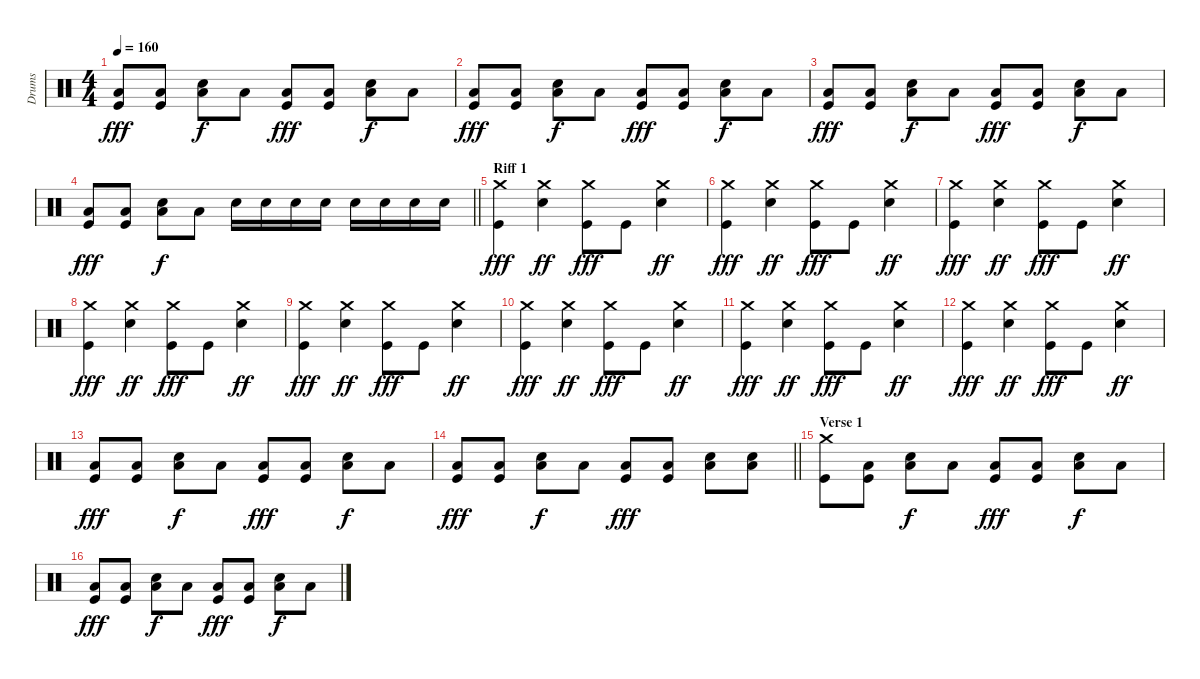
\track ("Drums" "Drums") {instrument percussion}
\staff {score}
\articulation defaults
\ts (4 4)
\tempo 160
\clef neutral
\ks c
("Low Floor Tom (hit)" "Kick (hit)").8{dy fff} ("Low Floor Tom (hit)" "Kick (hit)").8 ("Low Floor Tom (hit)" "Electric Snare (hit)").8{dy f} "Low Floor Tom (hit)".8 ("Low Floor Tom (hit)" "Kick (hit)").8{dy fff} ("Low Floor Tom (hit)" "Kick (hit)").8 ("Low Floor Tom (hit)" "Electric Snare (hit)").8{dy f} "Low Floor Tom (hit)".8 |
("Low Floor Tom (hit)" "Kick (hit)").8{dy fff} ("Low Floor Tom (hit)" "Kick (hit)").8 ("Low Floor Tom (hit)" "Electric Snare (hit)").8{dy f} "Low Floor Tom (hit)".8 ("Low Floor Tom (hit)" "Kick (hit)").8{dy fff} ("Low Floor Tom (hit)" "Kick (hit)").8 ("Low Floor Tom (hit)" "Electric Snare (hit)").8{dy f} "Low Floor Tom (hit)".8 |
("Low Floor Tom (hit)" "Kick (hit)").8{dy fff} ("Low Floor Tom (hit)" "Kick (hit)").8 ("Low Floor Tom (hit)" "Electric Snare (hit)").8{dy f} "Low Floor Tom (hit)".8 ("Low Floor Tom (hit)" "Kick (hit)").8{dy fff} ("Low Floor Tom (hit)" "Kick (hit)").8 ("Low Floor Tom (hit)" "Electric Snare (hit)").8{dy f} "Low Floor Tom (hit)".8 |
\barLineRight lightlight
("Low Floor Tom (hit)" "Kick (hit)").8{dy fff} ("Low Floor Tom (hit)" "Kick (hit)").8 ("Low Floor Tom (hit)" "Electric Snare (hit)").8{dy f} "Low Floor Tom (hit)".8 "Electric Snare (hit)".16 "Electric Snare (hit)".16 "Electric Snare (hit)".16 "Electric Snare (hit)".16 "Electric Snare (hit)".16 "Electric Snare (hit)".16 "Electric Snare (hit)".16 "Electric Snare (hit)".16 |
\section ("" "Riff 1")
("Crash medium (hit)" "Kick (hit)").4{dy fff} ("Crash medium (hit)" "Snare (hit) 2").4{dy ff} ("Crash medium (hit)" "Kick (hit)").8{dy fff} "Kick (hit)".8 ("Crash medium (hit)" "Snare (hit) 2").4{dy ff} |
("Crash medium (hit)" "Kick (hit)").4{dy fff} ("Crash medium (hit)" "Snare (hit) 2").4{dy ff} ("Crash medium (hit)" "Kick (hit)").8{dy fff} "Kick (hit)".8 ("Crash medium (hit)" "Snare (hit) 2").4{dy ff} |
("Crash medium (hit)" "Kick (hit)").4{dy fff} ("Crash medium (hit)" "Snare (hit) 2").4{dy ff} ("Crash medium (hit)" "Kick (hit)").8{dy fff} "Kick (hit)".8 ("Crash medium (hit)" "Snare (hit) 2").4{dy ff} |
("Crash medium (hit)" "Kick (hit)").4{dy fff} ("Crash medium (hit)" "Snare (hit) 2").4{dy ff} ("Crash medium (hit)" "Kick (hit)").8{dy fff} "Kick (hit)".8 ("Crash medium (hit)" "Snare (hit) 2").4{dy ff} |
("Crash medium (hit)" "Kick (hit)").4{dy fff} ("Crash medium (hit)" "Snare (hit) 2").4{dy ff} ("Crash medium (hit)" "Kick (hit)").8{dy fff} "Kick (hit)".8 ("Crash medium (hit)" "Snare (hit) 2").4{dy ff} |
("Crash medium (hit)" "Kick (hit)").4{dy fff} ("Crash medium (hit)" "Snare (hit) 2").4{dy ff} ("Crash medium (hit)" "Kick (hit)").8{dy fff} "Kick (hit)".8 ("Crash medium (hit)" "Snare (hit) 2").4{dy ff} |
("Crash medium (hit)" "Kick (hit)").4{dy fff} ("Crash medium (hit)" "Snare (hit) 2").4{dy ff} ("Crash medium (hit)" "Kick (hit)").8{dy fff} "Kick (hit)".8 ("Crash medium (hit)" "Snare (hit) 2").4{dy ff} |
("Crash medium (hit)" "Kick (hit)").4{dy fff} ("Crash medium (hit)" "Snare (hit) 2").4{dy ff} ("Crash medium (hit)" "Kick (hit)").8{dy fff} "Kick (hit)".8 ("Crash medium (hit)" "Snare (hit) 2").4{dy ff} |
("Low Floor Tom (hit)" "Kick (hit)").8{dy fff} ("Low Floor Tom (hit)" "Kick (hit)").8 ("Low Floor Tom (hit)" "Electric Snare (hit)").8{dy f} "Low Floor Tom (hit)".8 ("Low Floor Tom (hit)" "Kick (hit)").8{dy fff} ("Low Floor Tom (hit)" "Kick (hit)").8 ("Low Floor Tom (hit)" "Electric Snare (hit)").8{dy f} "Low Floor Tom (hit)".8 |
\barLineRight lightlight
("Low Floor Tom (hit)" "Kick (hit)").8{dy fff} ("Low Floor Tom (hit)" "Kick (hit)").8 ("Low Floor Tom (hit)" "Electric Snare (hit)").8{dy f} "Low Floor Tom (hit)".8 ("Low Floor Tom (hit)" "Kick (hit)").8{dy fff} ("Low Floor Tom (hit)" "Kick (hit)").8 ("Low Tom (hit)" "Electric Snare (hit)").8 ("Low Tom (hit)" "Electric Snare (hit)").8 |
\section ("" "Verse 1")
("Crash medium (hit)" "Kick (hit)").8 ("Low Floor Tom (hit)" "Kick (hit)").8 ("Low Floor Tom (hit)" "Electric Snare (hit)").8{dy f} "Low Floor Tom (hit)".8 ("Low Floor Tom (hit)" "Kick (hit)").8{dy fff} ("Low Floor Tom (hit)" "Kick (hit)").8 ("Low Floor Tom (hit)" "Electric Snare (hit)").8{dy f} "Low Floor Tom (hit)".8 |
("Low Floor Tom (hit)" "Kick (hit)").8{dy fff} ("Low Floor Tom (hit)" "Kick (hit)").8 ("Low Floor Tom (hit)" "Electric Snare (hit)").8{dy f} "Low Floor Tom (hit)".8 ("Low Floor Tom (hit)" "Kick (hit)").8{dy fff} ("Low Floor Tom (hit)" "Kick (hit)").8 ("Low Floor Tom (hit)" "Electric Snare (hit)").8{dy f} "Low Floor Tom (hit)".8
